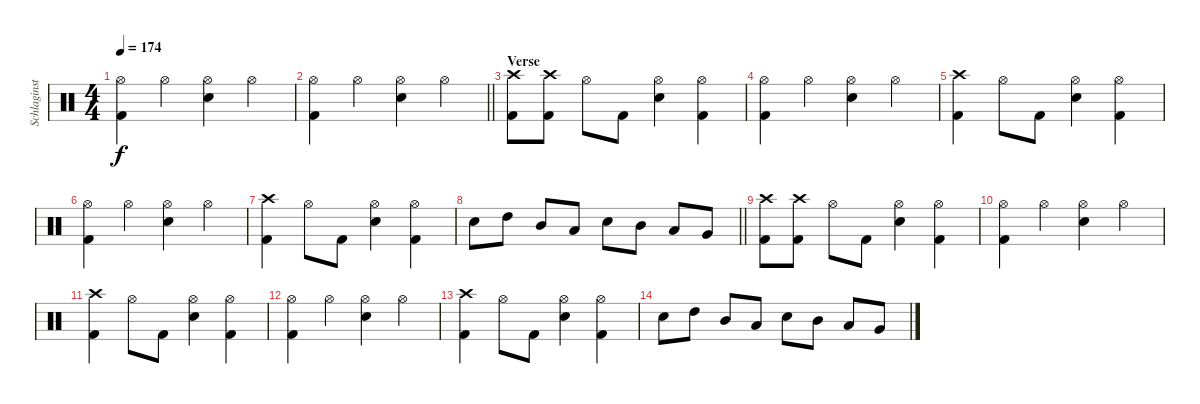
\track ("Schlaginstrumente - Auswahl" "Schlaginst") {instrument percussion}
\staff {score}
\articulation defaults
\ts (4 4)
\tempo 174
\clef neutral
\ks c
("Hi-Hat (open)" "Kick (hit) 2").4{dy f} "Hi-Hat (open)".4 ("Hi-Hat (open)" "Snare (hit) 2").4 "Hi-Hat (open)".4 |
\barLineRight lightlight
("Hi-Hat (open)" "Kick (hit) 2").4 "Hi-Hat (open)".4 ("Hi-Hat (open)" "Snare (hit) 2").4 "Hi-Hat (open)".4 |
\section ("" "Verse")
("Crash high (hit)" "Kick (hit) 2").8 ("Crash high (hit)" "Kick (hit) 2").8 "Hi-Hat (open)".8 "Kick (hit) 2".8 ("Hi-Hat (open)" "Snare (hit) 2").4 ("Hi-Hat (open)" "Kick (hit) 2").4 |
("Hi-Hat (open)" "Kick (hit) 2").4 "Hi-Hat (open)".4 ("Hi-Hat (open)" "Snare (hit) 2").4 "Hi-Hat (open)".4 |
("Crash high (hit)" "Kick (hit) 2").4 "Hi-Hat (open)".8 "Kick (hit) 2".8 ("Hi-Hat (open)" "Snare (hit) 2").4 ("Hi-Hat (open)" "Kick (hit) 2").4 |
("Hi-Hat (open)" "Kick (hit) 2").4 "Hi-Hat (open)".4 ("Hi-Hat (open)" "Snare (hit) 2").4 "Hi-Hat (open)".4 |
("Crash high (hit)" "Kick (hit) 2").4 "Hi-Hat (open)".8 "Kick (hit) 2".8 ("Hi-Hat (open)" "Snare (hit) 2").4 ("Hi-Hat (open)" "Kick (hit) 2").4 |
\barLineRight lightlight "Snare (hit) 2".8 "High Tom (hit)".8 "Mid Tom (hit)".8 "Low Tom (hit)".8 "Snare (hit) 2".8 "Mid Tom (hit)".8 "Low Tom (hit)".8 "Very Low Tom (hit)".8
|
\section ("" ".")
("Crash high (hit)" "Kick (hit) 2").8 ("Crash high (hit)" "Kick (hit) 2").8 "Hi-Hat (open)".8 "Kick (hit) 2".8 ("Hi-Hat (open)" "Snare (hit) 2").4 ("Hi-Hat (open)" "Kick (hit) 2").4 |
("Hi-Hat (open)" "Kick (hit) 2").4 "Hi-Hat (open)".4 ("Hi-Hat (open)" "Snare (hit) 2").4 "Hi-Hat (open)".4 |
("Crash high (hit)" "Kick (hit) 2").4 "Hi-Hat (open)".8 "Kick (hit) 2".8 ("Hi-Hat (open)" "Snare (hit) 2").4 ("Hi-Hat (open)" "Kick (hit) 2").4 |
("Hi-Hat (open)" "Kick (hit) 2").4 "Hi-Hat (open)".4 ("Hi-Hat (open)" "Snare (hit) 2").4 "Hi-Hat (open)".4 |
("Crash high (hit)" "Kick (hit) 2").4 "Hi-Hat (open)".8 "Kick (hit) 2".8 ("Hi-Hat (open)" "Snare (hit) 2").4 ("Hi-Hat (open)" "Kick (hit) 2").4 |
"Snare (hit) 2".8 "High Tom (hit)".8 "Mid Tom (hit)".8 "Low Tom (hit)".8 "Snare (hit) 2".8 "Mid Tom (hit)".8 "Low Tom (hit)".8 "Very Low Tom (hit)".8
